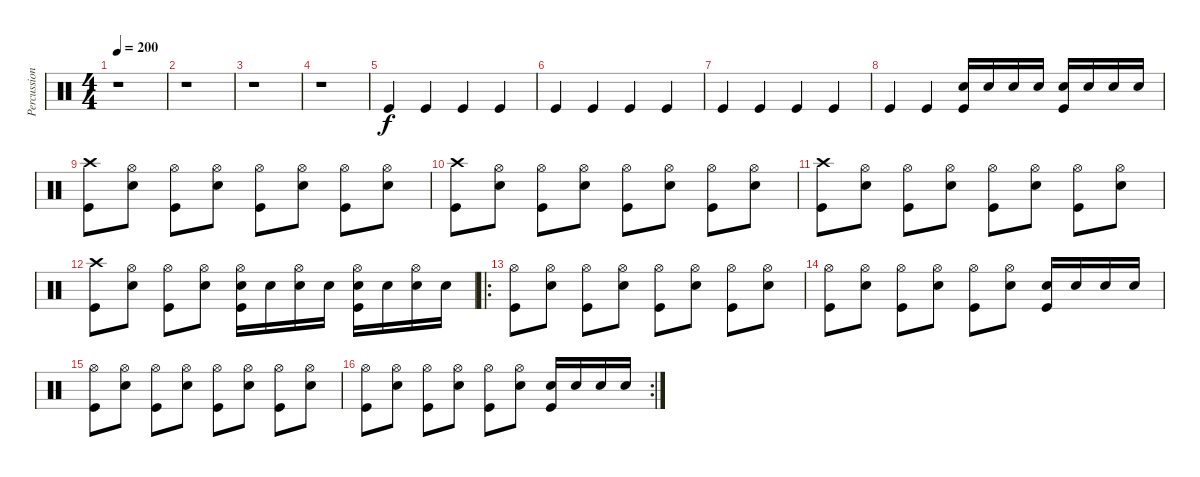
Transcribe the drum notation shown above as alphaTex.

\track ("Percussion" "Percussion") {instrument percussion}
\staff {score}
\articulation defaults
\ts (4 4)
\tempo 200
\clef neutral
\ks c
r.1{dy f} |
r.1 |
r.1 |
r.1 |
"Kick (hit)".4 "Kick (hit)".4 "Kick (hit)".4 "Kick (hit)".4 |
"Kick (hit)".4 "Kick (hit)".4 "Kick (hit)".4 "Kick (hit)".4 |
"Kick (hit)".4 "Kick (hit)".4 "Kick (hit)".4 "Kick (hit)".4 |
"Kick (hit)".4 "Kick (hit)".4 ("Snare (hit) 2" "Kick (hit)").16 "Snare (hit) 2".16 "Snare (hit) 2".16 "Snare (hit) 2".16 ("Snare (hit) 2" "Kick (hit)").16 "Snare (hit) 2".16 "Snare (hit) 2".16 "Snare (hit) 2".16 |
("Crash high (hit)" "Kick (hit)").8 ("Hi-Hat (open)" "Snare (hit) 2").8 ("Hi-Hat (open)" "Kick (hit)").8 ("Hi-Hat (open)" "Snare (hit) 2").8 ("Hi-Hat (open)" "Kick (hit)").8 ("Hi-Hat (open)" "Snare (hit) 2").8 ("Hi-Hat (open)" "Kick (hit)").8 ("Hi-Hat (open)" "Snare (hit) 2").8 |
("Crash high (hit)" "Kick (hit)").8 ("Hi-Hat (open)" "Snare (hit) 2").8 ("Hi-Hat (open)" "Kick (hit)").8 ("Hi-Hat (open)" "Snare (hit) 2").8 ("Hi-Hat (open)" "Kick (hit)").8 ("Hi-Hat (open)" "Snare (hit) 2").8 ("Hi-Hat (open)" "Kick (hit)").8 ("Hi-Hat (open)" "Snare (hit) 2").8 |
("Crash high (hit)" "Kick (hit)").8 ("Hi-Hat (open)" "Snare (hit) 2").8 ("Hi-Hat (open)" "Kick (hit)").8 ("Hi-Hat (open)" "Snare (hit) 2").8 ("Hi-Hat (open)" "Kick (hit)").8 ("Hi-Hat (open)" "Snare (hit) 2").8 ("Hi-Hat (open)" "Kick (hit)").8 ("Hi-Hat (open)" "Snare (hit) 2").8 |
("Crash high (hit)" "Kick (hit)").8 ("Hi-Hat (open)" "Snare (hit) 2").8 ("Hi-Hat (open)" "Kick (hit)").8 ("Hi-Hat (open)" "Snare (hit) 2").8 ("Hi-Hat (open)" "Snare (hit) 2" "Kick (hit)").16 "Snare (hit) 2".16 ("Hi-Hat (open)" "Snare (hit) 2").16 "Snare (hit) 2".16 ("Hi-Hat (open)" "Snare (hit) 2" "Kick (hit)").16 "Snare (hit) 2".16 ("Hi-Hat (open)" "Snare (hit) 2").16 "Snare (hit) 2".16 |
\ro
("Hi-Hat (open)" "Kick (hit)").8 ("Hi-Hat (open)" "Snare (hit) 2").8 ("Hi-Hat (open)" "Kick (hit)").8 ("Hi-Hat (open)" "Snare (hit) 2").8 ("Hi-Hat (open)" "Kick (hit)").8 ("Hi-Hat (open)" "Snare (hit) 2").8 ("Hi-Hat (open)" "Kick (hit)").8 ("Hi-Hat (open)" "Snare (hit) 2").8 |
("Hi-Hat (open)" "Kick (hit)").8 ("Hi-Hat (open)" "Snare (hit) 2").8 ("Hi-Hat (open)" "Kick (hit)").8 ("Hi-Hat (open)" "Snare (hit) 2").8 ("Hi-Hat (open)" "Kick (hit)").8 ("Hi-Hat (open)" "Snare (hit) 2").8 ("Snare (hit) 2" "Kick (hit)").16 "Snare (hit) 2".16 "Snare (hit) 2".16 "Snare (hit) 2".16 |
("Hi-Hat (open)" "Kick (hit)").8 ("Hi-Hat (open)" "Snare (hit) 2").8 ("Hi-Hat (open)" "Kick (hit)").8 ("Hi-Hat (open)" "Snare (hit) 2").8 ("Hi-Hat (open)" "Kick (hit)").8 ("Hi-Hat (open)" "Snare (hit) 2").8 ("Hi-Hat (open)" "Kick (hit)").8 ("Hi-Hat (open)" "Snare (hit) 2").8 |
\rc 2
("Hi-Hat (open)" "Kick (hit)").8 ("Hi-Hat (open)" "Snare (hit) 2").8 ("Hi-Hat (open)" "Kick (hit)").8 ("Hi-Hat (open)" "Snare (hit) 2").8 ("Hi-Hat (open)" "Kick (hit)").8 ("Hi-Hat (open)" "Snare (hit) 2").8 ("Snare (hit) 2" "Kick (hit)").16 "Snare (hit) 2".16 "Snare (hit) 2".16 "Snare (hit) 2".16
